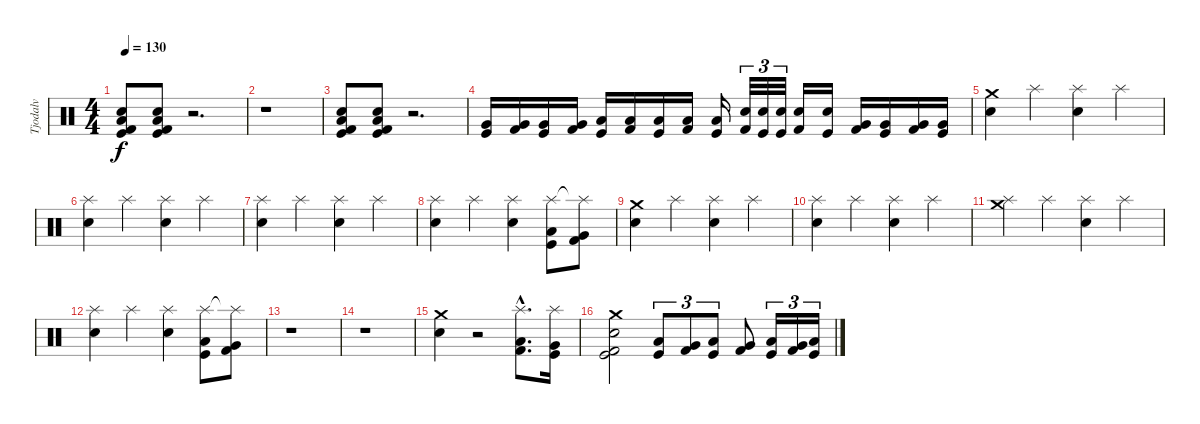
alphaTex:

\track ("Tjodalv" "Tjodalv") {instrument percussion}
\staff {score}
\articulation defaults
\ts (4 4)
\tempo 130
\clef neutral
\ks c
("Low Floor Tom (hit)" "Snare (hit) 2" "Kick (hit)" "Kick (hit) 2").8{dy f} ("Low Floor Tom (hit)" "Snare (hit) 2" "Kick (hit)" "Kick (hit) 2").8 r.2{d} |
r.1 |
("Low Floor Tom (hit)" "Snare (hit) 2" "Kick (hit)" "Kick (hit) 2").8 ("Low Floor Tom (hit)" "Snare (hit) 2" "Kick (hit)" "Kick (hit) 2").8 r.2{d} |
("Very Low Tom (hit)" "Kick (hit)").16 ("Very Low Tom (hit)" "Kick (hit) 2").16 ("Very Low Tom (hit)" "Kick (hit)").16 ("Very Low Tom (hit)" "Kick (hit) 2").16 ("Low Floor Tom (hit)" "Kick (hit)").16 ("Low Floor Tom (hit)" "Kick (hit) 2").16 ("Low Floor Tom (hit)" "Kick (hit)").16 ("Low Floor Tom (hit)" "Kick (hit) 2").16 ("Low Floor Tom (hit)" "Kick (hit)").16 ("Snare (hit) 2" "Kick (hit) 2").32{tu (3 2)} ("Snare (hit) 2" "Kick (hit)").32{tu (3 2)} ("Snare (hit) 2" "Kick (hit)").32{tu (3 2)} ("Electric Snare (hit)" "Kick (hit) 2").16 ("Electric Snare (hit)" "Kick (hit)").16 ("Very Low Tom (hit)" "Kick (hit) 2").16 ("Very Low Tom (hit)" "Kick (hit)").16 ("Very Low Tom (hit)" "Kick (hit) 2").16 ("Very Low Tom (hit)" "Kick (hit)").16 |
("Crash medium (hit)" "Snare (hit) 2").4 "Splash (hit)".4 ("Splash (hit)" "Snare (hit) 2").4 "Splash (hit)".4 |
("Splash (hit)" "Snare (hit) 2").4 "Splash (hit)".4 ("Splash (hit)" "Snare (hit) 2").4 "Splash (hit)".4 |
("Splash (hit)" "Snare (hit) 2").4 "Splash (hit)".4 ("Splash (hit)" "Snare (hit) 2").4 "Splash (hit)".4 |
("Splash (hit)" "Snare (hit) 2").4 "Splash (hit)".4 ("Splash (hit)" "Snare (hit) 2").4 ("Splash (hit)" "Kick (hit)" "Low Floor Tom (hit)").8 ("Splash (hit)"{t} "Kick (hit) 2" "Very Low Tom (hit)").8 |
("Crash medium (hit)" "Snare (hit) 2").4 "Splash (hit)".4 ("Splash (hit)" "Snare (hit) 2").4 "Splash (hit)".4 |
("Splash (hit)" "Snare (hit) 2").4 "Splash (hit)".4 ("Splash (hit)" "Snare (hit) 2").4 "Splash (hit)".4 |
("Splash (hit)" "Crash medium (hit)").4 "Splash (hit)".4 ("Splash (hit)" "Snare (hit) 2").4 "Splash (hit)".4 |
("Splash (hit)" "Snare (hit) 2").4 "Splash (hit)".4 ("Splash (hit)" "Snare (hit) 2").4 ("Splash (hit)" "Kick (hit)" "Low Floor Tom (hit)").8 ("Splash (hit)"{t} "Kick (hit) 2" "Very Low Tom (hit)").8 |
r.1 |
r.1 |
("Crash medium (hit)" "Snare (hit) 2").4 r.2 ("Splash (hit)"{hac} "Low Floor Tom (hit)"{hac} "Kick (hit) 2"{hac}).8{d} ("Splash (hit)" "Very Low Tom (hit)" "Kick (hit)").16 |
("Crash medium (hit)" "Snare (hit) 2" "Kick (hit)" "Kick (hit) 2").2 ("Kick (hit)" "Low Floor Tom (hit)").8{tu (3 2)} ("Kick (hit) 2" "Very Low Tom (hit)").8{tu (3 2)} ("Kick (hit)" "Low Floor Tom (hit)").8{tu (3 2)} ("Kick (hit) 2" "Very Low Tom (hit)").8 ("Kick (hit)" "Low Floor Tom (hit)").16{tu (3 2)} ("Kick (hit) 2" "Very Low Tom (hit)").16{tu (3 2)} ("Kick (hit)" "Low Floor Tom (hit)").16{tu (3 2)}
